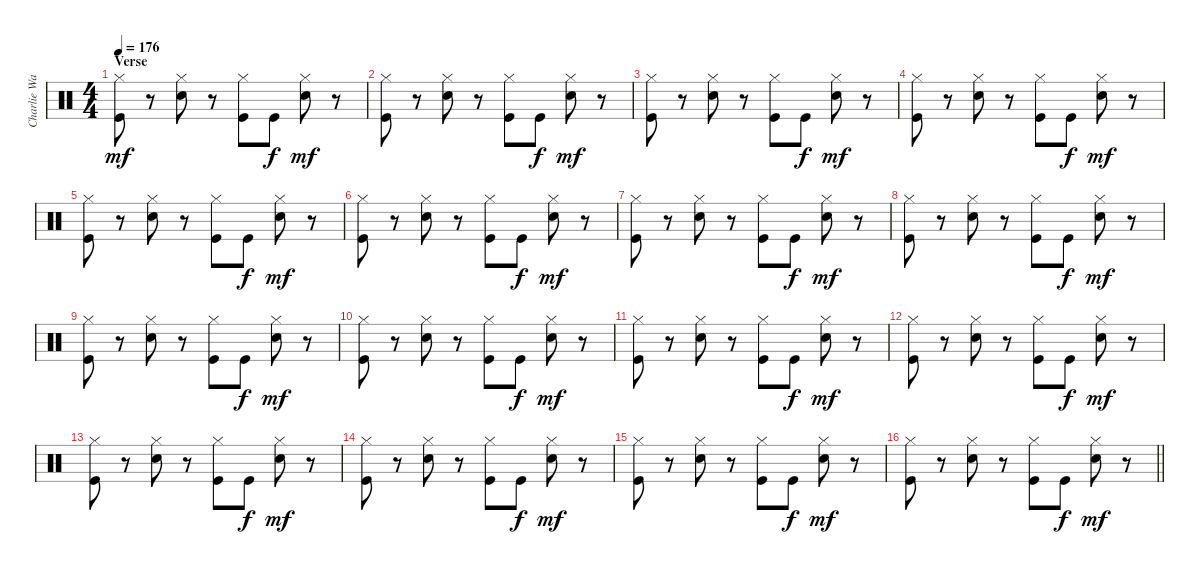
\track ("Charlie Watts" "Charlie Wa") {instrument percussion}
\staff {score}
\articulation defaults
\ts (4 4)
\section ("" "Verse")
\tempo 176
\clef neutral
\ks c
("Hi-Hat (closed)" "Kick (hit)").8{dy mf} r.8 ("Hi-Hat (closed)" "Snare (hit) 2").8 r.8 ("Hi-Hat (closed)" "Kick (hit)").8 "Kick (hit)".8{dy f} ("Hi-Hat (closed)" "Snare (hit) 2").8{dy mf} r.8 |
("Hi-Hat (closed)" "Kick (hit)").8 r.8 ("Hi-Hat (closed)" "Snare (hit) 2").8 r.8 ("Hi-Hat (closed)" "Kick (hit)").8 "Kick (hit)".8{dy f} ("Hi-Hat (closed)" "Snare (hit) 2").8{dy mf} r.8 |
("Hi-Hat (closed)" "Kick (hit)").8 r.8 ("Hi-Hat (closed)" "Snare (hit) 2").8 r.8 ("Hi-Hat (closed)" "Kick (hit)").8 "Kick (hit)".8{dy f} ("Hi-Hat (closed)" "Snare (hit) 2").8{dy mf} r.8 |
("Hi-Hat (closed)" "Kick (hit)").8 r.8 ("Hi-Hat (closed)" "Snare (hit) 2").8 r.8 ("Hi-Hat (closed)" "Kick (hit)").8 "Kick (hit)".8{dy f} ("Hi-Hat (closed)" "Snare (hit) 2").8{dy mf} r.8 |
("Hi-Hat (closed)" "Kick (hit)").8 r.8 ("Hi-Hat (closed)" "Snare (hit) 2").8 r.8 ("Hi-Hat (closed)" "Kick (hit)").8 "Kick (hit)".8{dy f} ("Hi-Hat (closed)" "Snare (hit) 2").8{dy mf} r.8 |
("Hi-Hat (closed)" "Kick (hit)").8 r.8 ("Hi-Hat (closed)" "Snare (hit) 2").8 r.8 ("Hi-Hat (closed)" "Kick (hit)").8 "Kick (hit)".8{dy f} ("Hi-Hat (closed)" "Snare (hit) 2").8{dy mf} r.8 |
("Hi-Hat (closed)" "Kick (hit)").8 r.8 ("Hi-Hat (closed)" "Snare (hit) 2").8 r.8 ("Hi-Hat (closed)" "Kick (hit)").8 "Kick (hit)".8{dy f} ("Hi-Hat (closed)" "Snare (hit) 2").8{dy mf} r.8 |
("Hi-Hat (closed)" "Kick (hit)").8 r.8 ("Hi-Hat (closed)" "Snare (hit) 2").8 r.8 ("Hi-Hat (closed)" "Kick (hit)").8 "Kick (hit)".8{dy f} ("Hi-Hat (closed)" "Snare (hit) 2").8{dy mf} r.8 |
("Hi-Hat (closed)" "Kick (hit)").8 r.8 ("Hi-Hat (closed)" "Snare (hit) 2").8 r.8 ("Hi-Hat (closed)" "Kick (hit)").8 "Kick (hit)".8{dy f} ("Hi-Hat (closed)" "Snare (hit) 2").8{dy mf} r.8 |
("Hi-Hat (closed)" "Kick (hit)").8 r.8 ("Hi-Hat (closed)" "Snare (hit) 2").8 r.8 ("Hi-Hat (closed)" "Kick (hit)").8 "Kick (hit)".8{dy f} ("Hi-Hat (closed)" "Snare (hit) 2").8{dy mf} r.8 |
("Hi-Hat (closed)" "Kick (hit)").8 r.8 ("Hi-Hat (closed)" "Snare (hit) 2").8 r.8 ("Hi-Hat (closed)" "Kick (hit)").8 "Kick (hit)".8{dy f} ("Hi-Hat (closed)" "Snare (hit) 2").8{dy mf} r.8 |
("Hi-Hat (closed)" "Kick (hit)").8 r.8 ("Hi-Hat (closed)" "Snare (hit) 2").8 r.8 ("Hi-Hat (closed)" "Kick (hit)").8 "Kick (hit)".8{dy f} ("Hi-Hat (closed)" "Snare (hit) 2").8{dy mf} r.8 |
("Hi-Hat (closed)" "Kick (hit)").8 r.8 ("Hi-Hat (closed)" "Snare (hit) 2").8 r.8 ("Hi-Hat (closed)" "Kick (hit)").8 "Kick (hit)".8{dy f} ("Hi-Hat (closed)" "Snare (hit) 2").8{dy mf} r.8 |
("Hi-Hat (closed)" "Kick (hit)").8 r.8 ("Hi-Hat (closed)" "Snare (hit) 2").8 r.8 ("Hi-Hat (closed)" "Kick (hit)").8 "Kick (hit)".8{dy f} ("Hi-Hat (closed)" "Snare (hit) 2").8{dy mf} r.8 |
("Hi-Hat (closed)" "Kick (hit)").8 r.8 ("Hi-Hat (closed)" "Snare (hit) 2").8 r.8 ("Hi-Hat (closed)" "Kick (hit)").8 "Kick (hit)".8{dy f} ("Hi-Hat (closed)" "Snare (hit) 2").8{dy mf} r.8 |
\barLineRight lightlight
("Hi-Hat (closed)" "Kick (hit)").8 r.8 ("Hi-Hat (closed)" "Snare (hit) 2").8 r.8 ("Hi-Hat (closed)" "Kick (hit)").8 "Kick (hit)".8{dy f} ("Hi-Hat (closed)" "Snare (hit) 2").8{dy mf} r.8
